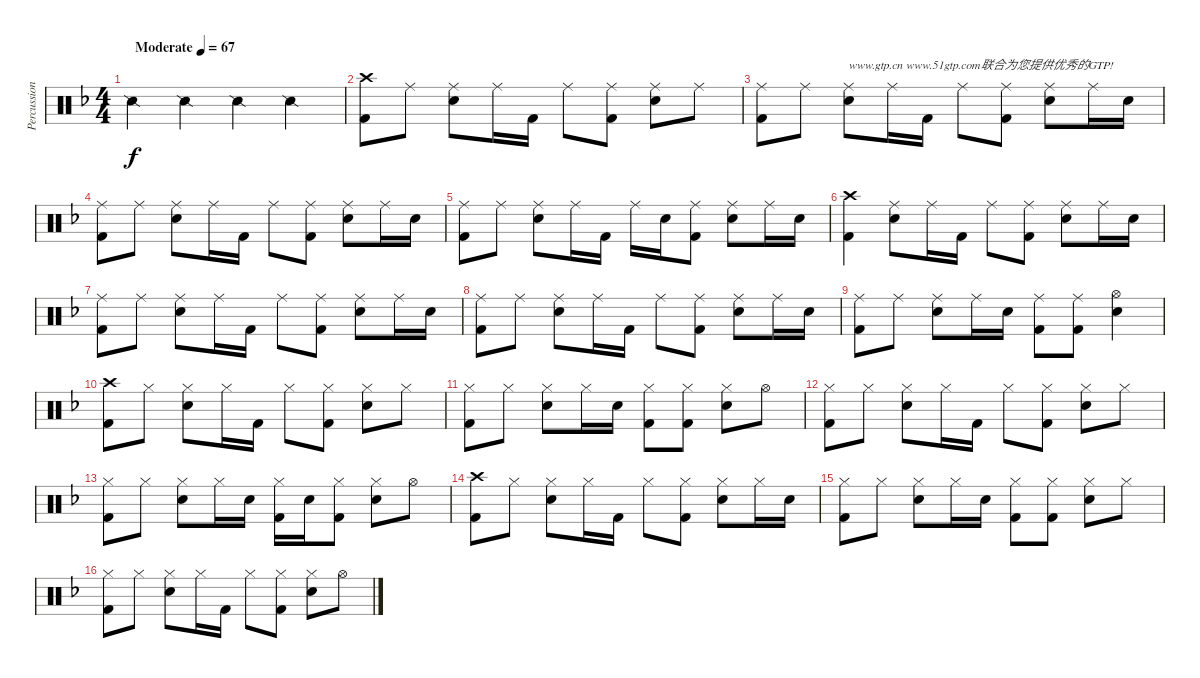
\track ("Percussion" "Percussion") {instrument percussion}
\staff {score}
\articulation defaults
\ts (4 4)
\tempo (67 "Moderate")
\clef neutral
\ks f "Snare (side stick) 2".4{dy f} "Snare (side stick) 2".4 "Snare (side stick) 2".4 "Snare (side stick) 2".4
|
("Crash high (hit)" "Kick (hit) 2").8 "Ride (middle)".8 ("Ride (middle)" "Snare (hit) 2").8 "Ride (middle)".16 "Kick (hit) 2".16 "Ride (middle)".8 ("Ride (middle)" "Kick (hit) 2").8 ("Ride (middle)" "Electric Snare (hit)").8 "Ride (middle)".8 |
("Ride (middle)" "Kick (hit) 2").8 "Ride (middle)".8 ("Ride (middle)" "Snare (hit) 2").8{txt "www.gtp.cn www.51gtp.com联合为您提供优秀的GTP!"} "Ride (middle)".16 "Kick (hit) 2".16 "Ride (middle)".8 ("Ride (middle)" "Kick (hit) 2").8 ("Ride (middle)" "Electric Snare (hit)").8 "Ride (middle)".16 "Electric Snare (hit)".16 |
("Ride (middle)" "Kick (hit) 2").8 "Ride (middle)".8 ("Ride (middle)" "Snare (hit) 2").8 "Ride (middle)".16 "Kick (hit) 2".16 "Ride (middle)".8 ("Ride (middle)" "Kick (hit) 2").8 ("Ride (middle)" "Electric Snare (hit)").8 "Ride (middle)".16 "Electric Snare (hit)".16 |
("Ride (middle)" "Kick (hit) 2").8 "Ride (middle)".8 ("Ride (middle)" "Snare (hit) 2").8 "Ride (middle)".16 "Kick (hit) 2".16 "Ride (middle)".16 "Electric Snare (hit)".16 ("Ride (middle)" "Kick (hit) 2").8 ("Ride (middle)" "Electric Snare (hit)").8 "Ride (middle)".16 "Electric Snare (hit)".16 |
("Crash high (hit)" "Kick (hit) 2").4 ("Ride (middle)" "Snare (hit) 2").8 "Ride (middle)".16 "Kick (hit) 2".16 "Ride (middle)".8 ("Ride (middle)" "Kick (hit) 2").8 ("Ride (middle)" "Electric Snare (hit)").8 "Ride (middle)".16 "Electric Snare (hit)".16 |
("Ride (middle)" "Kick (hit) 2").8 "Ride (middle)".8 ("Ride (middle)" "Snare (hit) 2").8 "Ride (middle)".16 "Kick (hit) 2".16 "Ride (middle)".8 ("Ride (middle)" "Kick (hit) 2").8 ("Ride (middle)" "Electric Snare (hit)").8 "Ride (middle)".16 "Electric Snare (hit)".16 |
("Ride (middle)" "Kick (hit) 2").8 "Ride (middle)".8 ("Ride (middle)" "Snare (hit) 2").8 "Ride (middle)".16 "Kick (hit) 2".16 "Ride (middle)".8 ("Ride (middle)" "Kick (hit) 2").8 ("Ride (middle)" "Electric Snare (hit)").8 "Ride (middle)".16 "Electric Snare (hit)".16 |
("Ride (middle)" "Kick (hit) 2").8 "Ride (middle)".8 ("Ride (middle)" "Electric Snare (hit)").8 "Ride (middle)".16 "Electric Snare (hit)".16 ("Ride (middle)" "Kick (hit) 2").8 ("Ride (middle)" "Kick (hit) 2").8 ("Hi-Hat (open)" "Electric Snare (hit)").4 |
("Crash high (hit)" "Kick (hit) 2").8 "Hi-Hat (closed)".8 ("Hi-Hat (closed)" "Electric Snare (hit)").8 "Hi-Hat (closed)".16 "Kick (hit) 2".16 "Hi-Hat (closed)".8 ("Hi-Hat (closed)" "Kick (hit) 2").8 ("Hi-Hat (closed)" "Electric Snare (hit)").8 "Hi-Hat (closed)".8 |
("Hi-Hat (closed)" "Kick (hit) 2").8 "Hi-Hat (closed)".8 ("Hi-Hat (closed)" "Electric Snare (hit)").8 "Hi-Hat (closed)".16 "Electric Snare (hit)".16 ("Hi-Hat (closed)" "Kick (hit) 2").8 ("Hi-Hat (closed)" "Kick (hit) 2").8 ("Hi-Hat (closed)" "Electric Snare (hit)").8 "Hi-Hat (open)".8 |
("Hi-Hat (closed)" "Kick (hit) 2").8 "Hi-Hat (closed)".8 ("Hi-Hat (closed)" "Electric Snare (hit)").8 "Hi-Hat (closed)".16 "Kick (hit) 2".16 "Hi-Hat (closed)".8 ("Hi-Hat (closed)" "Kick (hit) 2").8 ("Hi-Hat (closed)" "Electric Snare (hit)").8 "Hi-Hat (closed)".8 |
("Hi-Hat (closed)" "Kick (hit) 2").8 "Hi-Hat (closed)".8 ("Hi-Hat (closed)" "Electric Snare (hit)").8 "Hi-Hat (closed)".16 "Electric Snare (hit)".16 ("Hi-Hat (closed)" "Kick (hit) 2").16 "Electric Snare (hit)".16 ("Hi-Hat (closed)" "Kick (hit) 2").8 ("Hi-Hat (closed)" "Electric Snare (hit)").8 "Hi-Hat (open)".8 |
("Crash high (hit)" "Kick (hit) 2").8 "Hi-Hat (closed)".8 ("Hi-Hat (closed)" "Electric Snare (hit)").8 "Hi-Hat (closed)".16 "Kick (hit) 2".16 "Hi-Hat (closed)".8 ("Hi-Hat (closed)" "Kick (hit) 2").8 ("Hi-Hat (closed)" "Electric Snare (hit)").8 "Hi-Hat (closed)".16 "Electric Snare (hit)".16 |
("Hi-Hat (closed)" "Kick (hit) 2").8 "Hi-Hat (closed)".8 ("Hi-Hat (closed)" "Electric Snare (hit)").8 "Hi-Hat (closed)".16 "Electric Snare (hit)".16 ("Hi-Hat (closed)" "Kick (hit) 2").8 ("Hi-Hat (closed)" "Kick (hit) 2").8 ("Hi-Hat (closed)" "Electric Snare (hit)").8 "Hi-Hat (closed)".8 |
("Hi-Hat (closed)" "Kick (hit) 2").8 "Hi-Hat (closed)".8 ("Hi-Hat (closed)" "Electric Snare (hit)").8 "Hi-Hat (closed)".16 "Kick (hit) 2".16 "Hi-Hat (closed)".8 ("Hi-Hat (closed)" "Kick (hit) 2").8 ("Hi-Hat (closed)" "Electric Snare (hit)").8 "Hi-Hat (open)".8
